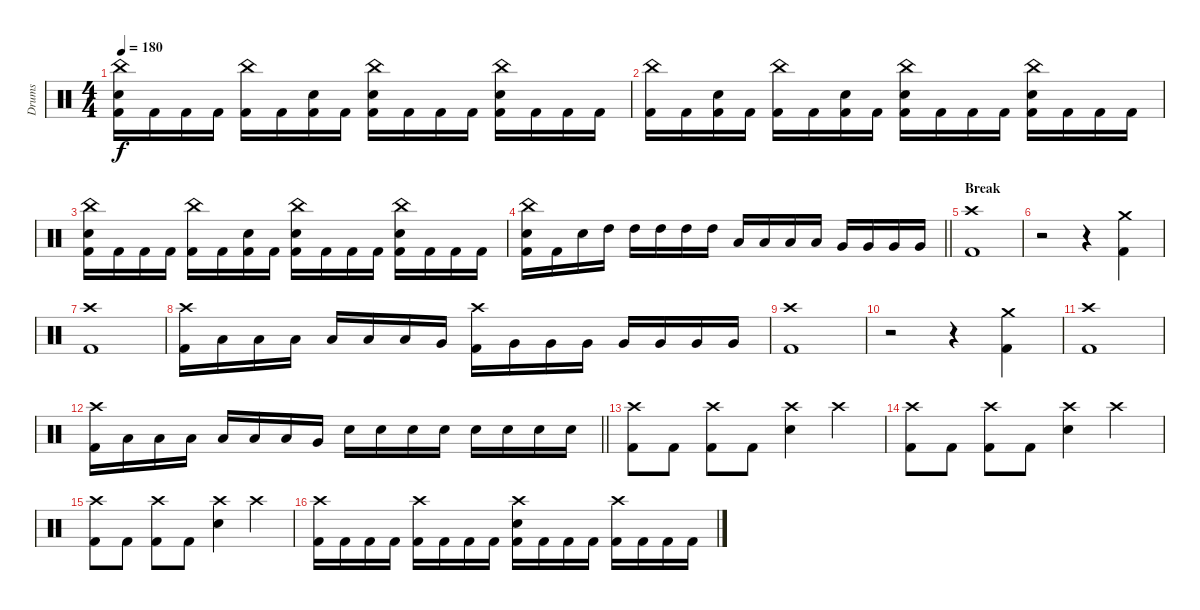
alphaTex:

\track ("Drums" "Drums") {instrument percussion}
\staff {score}
\articulation defaults
\ts (4 4)
\tempo 180
\clef neutral
\ks c
("China (hit)" "Electric Snare (hit)" "Kick (hit) 2").16{dy f} "Kick (hit) 2".16 "Kick (hit) 2".16 "Kick (hit) 2".16 ("China (hit)" "Kick (hit) 2").16 "Kick (hit) 2".16 ("Electric Snare (hit)" "Kick (hit) 2").16 "Kick (hit) 2".16 ("China (hit)" "Electric Snare (hit)" "Kick (hit) 2").16 "Kick (hit) 2".16 "Kick (hit) 2".16 "Kick (hit) 2".16 ("China (hit)" "Electric Snare (hit)" "Kick (hit) 2").16 "Kick (hit) 2".16 "Kick (hit) 2".16 "Kick (hit) 2".16 |
("China (hit)" "Kick (hit) 2").16 "Kick (hit) 2".16 ("Electric Snare (hit)" "Kick (hit) 2").16 "Kick (hit) 2".16 ("China (hit)" "Kick (hit) 2").16 "Kick (hit) 2".16 ("Electric Snare (hit)" "Kick (hit) 2").16 "Kick (hit) 2".16 ("China (hit)" "Electric Snare (hit)" "Kick (hit) 2").16 "Kick (hit) 2".16 "Kick (hit) 2".16 "Kick (hit) 2".16 ("China (hit)" "Electric Snare (hit)" "Kick (hit) 2").16 "Kick (hit) 2".16 "Kick (hit) 2".16 "Kick (hit) 2".16 |
("China (hit)" "Electric Snare (hit)" "Kick (hit) 2").16 "Kick (hit) 2".16 "Kick (hit) 2".16 "Kick (hit) 2".16 ("China (hit)" "Kick (hit) 2").16 "Kick (hit) 2".16 ("Electric Snare (hit)" "Kick (hit) 2").16 "Kick (hit) 2".16 ("China (hit)" "Electric Snare (hit)" "Kick (hit) 2").16 "Kick (hit) 2".16 "Kick (hit) 2".16 "Kick (hit) 2".16 ("China (hit)" "Electric Snare (hit)" "Kick (hit) 2").16 "Kick (hit) 2".16 "Kick (hit) 2".16 "Kick (hit) 2".16 |
\barLineRight lightlight
("China (hit)" "Electric Snare (hit)" "Kick (hit) 2").16 "Kick (hit) 2".16 "Electric Snare (hit)".16 "High Tom (hit)".16 "High Tom (hit)".16 "High Tom (hit)".16 "High Tom (hit)".16 "High Tom (hit)".16 "Low Tom (hit)".16 "Low Tom (hit)".16 "Low Tom (hit)".16 "Low Tom (hit)".16 "Very Low Tom (hit)".16 "Very Low Tom (hit)".16 "Very Low Tom (hit)".16 "Very Low Tom (hit)".16 |
\section ("" "Break")
("Crash high (hit)" "Kick (hit) 2").1 |
r.2 r.4 ("Crash medium (hit)" "Kick (hit) 2").4 |
("Crash high (hit)" "Kick (hit) 2").1 |
("Crash high (hit)" "Kick (hit) 2").16 "Low Tom (hit)".16 "Low Tom (hit)".16 "Low Tom (hit)".16 "Low Tom (hit)".16 "Low Tom (hit)".16 "Low Tom (hit)".16 "Very Low Tom (hit)".16 ("Crash high (hit)" "Kick (hit) 2").16 "Very Low Tom (hit)".16 "Very Low Tom (hit)".16 "Very Low Tom (hit)".16 "Very Low Tom (hit)".16 "Very Low Tom (hit)".16 "Very Low Tom (hit)".16 "Very Low Tom (hit)".16 |
("Crash high (hit)" "Kick (hit) 2").1 |
r.2 r.4 ("Crash medium (hit)" "Kick (hit) 2").4 |
("Crash high (hit)" "Kick (hit) 2").1 |
\barLineRight lightlight
("Crash high (hit)" "Kick (hit) 2").16 "Low Tom (hit)".16 "Low Tom (hit)".16 "Low Tom (hit)".16 "Low Tom (hit)".16 "Low Tom (hit)".16 "Low Tom (hit)".16 "Very Low Tom (hit)".16 "Electric Snare (hit)".16 "Electric Snare (hit)".16 "Electric Snare (hit)".16 "Electric Snare (hit)".16 "Electric Snare (hit)".16 "Electric Snare (hit)".16 "Electric Snare (hit)".16 "Electric Snare (hit)".16 |
\section ("" "")
("Crash high (hit)" "Kick (hit) 2").8 "Kick (hit) 2".8 ("Crash high (hit)" "Kick (hit) 2").8 "Kick (hit) 2".8 ("Crash high (hit)" "Electric Snare (hit)").4 "Crash high (hit)".4 |
("Crash high (hit)" "Kick (hit) 2").8 "Kick (hit) 2".8 ("Crash high (hit)" "Kick (hit) 2").8 "Kick (hit) 2".8 ("Crash high (hit)" "Electric Snare (hit)").4 "Crash high (hit)".4 |
("Crash high (hit)" "Kick (hit) 2").8 "Kick (hit) 2".8 ("Crash high (hit)" "Kick (hit) 2").8 "Kick (hit) 2".8 ("Crash high (hit)" "Electric Snare (hit)").4 "Crash high (hit)".4 |
("Crash high (hit)" "Kick (hit) 2").16 "Kick (hit) 2".16 "Kick (hit) 2".16 "Kick (hit) 2".16 ("Crash high (hit)" "Kick (hit) 2").16 "Kick (hit) 2".16 "Kick (hit) 2".16 "Kick (hit) 2".16 ("Crash high (hit)" "Electric Snare (hit)" "Kick (hit) 2").16 "Kick (hit) 2".16 "Kick (hit) 2".16 "Kick (hit) 2".16 ("Crash high (hit)" "Kick (hit) 2").16 "Kick (hit) 2".16 "Kick (hit) 2".16 "Kick (hit) 2".16
